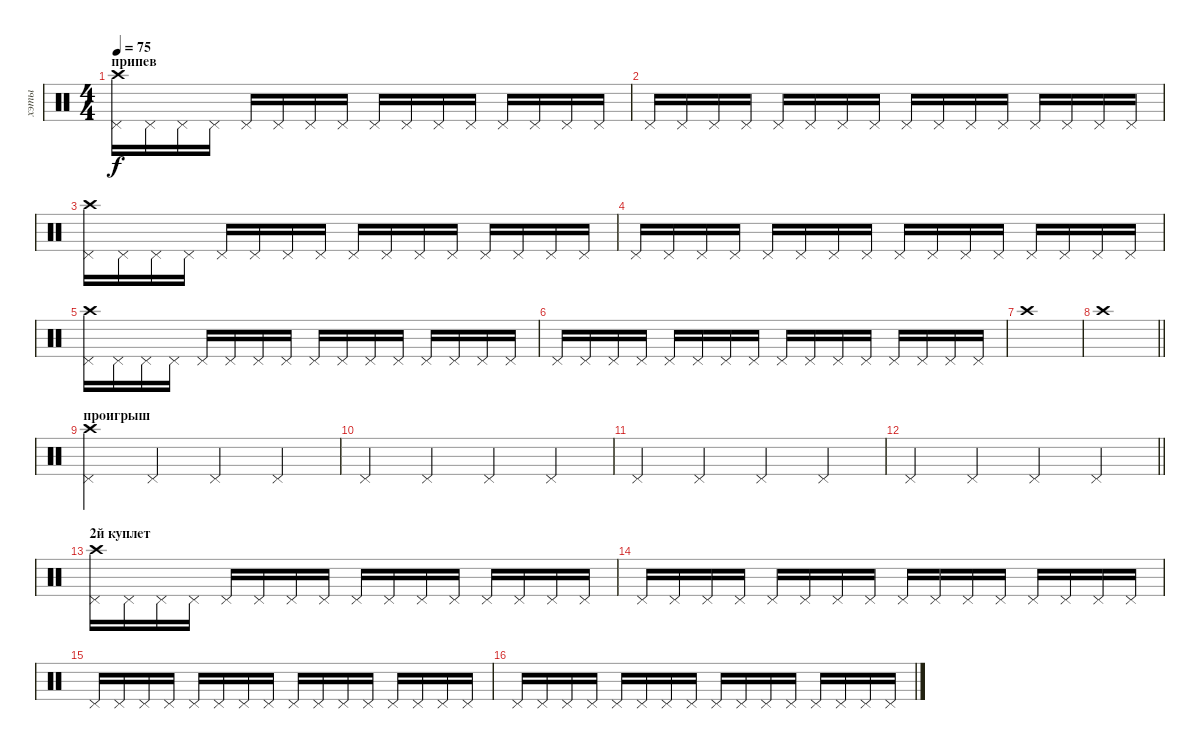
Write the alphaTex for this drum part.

\track ("хэты" "хэты") {instrument percussion}
\staff {score}
\articulation defaults
\ts (4 4)
\section ("" "припев")
\tempo 75
\clef neutral
\ks c
("Crash high (hit)" "Pedal Hi-Hat (hit)").16{dy f} "Pedal Hi-Hat (hit)".16 "Pedal Hi-Hat (hit)".16 "Pedal Hi-Hat (hit)".16 "Pedal Hi-Hat (hit)".16 "Pedal Hi-Hat (hit)".16 "Pedal Hi-Hat (hit)".16 "Pedal Hi-Hat (hit)".16 "Pedal Hi-Hat (hit)".16 "Pedal Hi-Hat (hit)".16 "Pedal Hi-Hat (hit)".16 "Pedal Hi-Hat (hit)".16 "Pedal Hi-Hat (hit)".16 "Pedal Hi-Hat (hit)".16 "Pedal Hi-Hat (hit)".16 "Pedal Hi-Hat (hit)".16 |
"Pedal Hi-Hat (hit)".16 "Pedal Hi-Hat (hit)".16 "Pedal Hi-Hat (hit)".16 "Pedal Hi-Hat (hit)".16 "Pedal Hi-Hat (hit)".16 "Pedal Hi-Hat (hit)".16 "Pedal Hi-Hat (hit)".16 "Pedal Hi-Hat (hit)".16 "Pedal Hi-Hat (hit)".16 "Pedal Hi-Hat (hit)".16 "Pedal Hi-Hat (hit)".16 "Pedal Hi-Hat (hit)".16 "Pedal Hi-Hat (hit)".16 "Pedal Hi-Hat (hit)".16 "Pedal Hi-Hat (hit)".16 "Pedal Hi-Hat (hit)".16 |
("Crash high (hit)" "Pedal Hi-Hat (hit)").16 "Pedal Hi-Hat (hit)".16 "Pedal Hi-Hat (hit)".16 "Pedal Hi-Hat (hit)".16 "Pedal Hi-Hat (hit)".16 "Pedal Hi-Hat (hit)".16 "Pedal Hi-Hat (hit)".16 "Pedal Hi-Hat (hit)".16 "Pedal Hi-Hat (hit)".16 "Pedal Hi-Hat (hit)".16 "Pedal Hi-Hat (hit)".16 "Pedal Hi-Hat (hit)".16 "Pedal Hi-Hat (hit)".16 "Pedal Hi-Hat (hit)".16 "Pedal Hi-Hat (hit)".16 "Pedal Hi-Hat (hit)".16 |
"Pedal Hi-Hat (hit)".16 "Pedal Hi-Hat (hit)".16 "Pedal Hi-Hat (hit)".16 "Pedal Hi-Hat (hit)".16 "Pedal Hi-Hat (hit)".16 "Pedal Hi-Hat (hit)".16 "Pedal Hi-Hat (hit)".16 "Pedal Hi-Hat (hit)".16 "Pedal Hi-Hat (hit)".16 "Pedal Hi-Hat (hit)".16 "Pedal Hi-Hat (hit)".16 "Pedal Hi-Hat (hit)".16 "Pedal Hi-Hat (hit)".16 "Pedal Hi-Hat (hit)".16 "Pedal Hi-Hat (hit)".16 "Pedal Hi-Hat (hit)".16 |
("Crash high (hit)" "Pedal Hi-Hat (hit)").16 "Pedal Hi-Hat (hit)".16 "Pedal Hi-Hat (hit)".16 "Pedal Hi-Hat (hit)".16 "Pedal Hi-Hat (hit)".16 "Pedal Hi-Hat (hit)".16 "Pedal Hi-Hat (hit)".16 "Pedal Hi-Hat (hit)".16 "Pedal Hi-Hat (hit)".16 "Pedal Hi-Hat (hit)".16 "Pedal Hi-Hat (hit)".16 "Pedal Hi-Hat (hit)".16 "Pedal Hi-Hat (hit)".16 "Pedal Hi-Hat (hit)".16 "Pedal Hi-Hat (hit)".16 "Pedal Hi-Hat (hit)".16 |
"Pedal Hi-Hat (hit)".16 "Pedal Hi-Hat (hit)".16 "Pedal Hi-Hat (hit)".16 "Pedal Hi-Hat (hit)".16 "Pedal Hi-Hat (hit)".16 "Pedal Hi-Hat (hit)".16 "Pedal Hi-Hat (hit)".16 "Pedal Hi-Hat (hit)".16 "Pedal Hi-Hat (hit)".16 "Pedal Hi-Hat (hit)".16 "Pedal Hi-Hat (hit)".16 "Pedal Hi-Hat (hit)".16 "Pedal Hi-Hat (hit)".16 "Pedal Hi-Hat (hit)".16 "Pedal Hi-Hat (hit)".16 "Pedal Hi-Hat (hit)".16 |
"Crash high (hit)".1 |
\barLineRight lightlight "Crash high (hit)".1
|
\section ("" "проигрыш")
("Pedal Hi-Hat (hit)" "Crash high (hit)").4 "Pedal Hi-Hat (hit)".4 "Pedal Hi-Hat (hit)".4 "Pedal Hi-Hat (hit)".4 |
"Pedal Hi-Hat (hit)".4 "Pedal Hi-Hat (hit)".4 "Pedal Hi-Hat (hit)".4 "Pedal Hi-Hat (hit)".4 |
"Pedal Hi-Hat (hit)".4 "Pedal Hi-Hat (hit)".4 "Pedal Hi-Hat (hit)".4 "Pedal Hi-Hat (hit)".4 |
\barLineRight lightlight "Pedal Hi-Hat (hit)".4 "Pedal Hi-Hat (hit)".4 "Pedal Hi-Hat (hit)".4 "Pedal Hi-Hat (hit)".4
|
\section ("" "2й куплет")
("Crash high (hit)" "Pedal Hi-Hat (hit)").16 "Pedal Hi-Hat (hit)".16 "Pedal Hi-Hat (hit)".16 "Pedal Hi-Hat (hit)".16 "Pedal Hi-Hat (hit)".16 "Pedal Hi-Hat (hit)".16 "Pedal Hi-Hat (hit)".16 "Pedal Hi-Hat (hit)".16 "Pedal Hi-Hat (hit)".16 "Pedal Hi-Hat (hit)".16 "Pedal Hi-Hat (hit)".16 "Pedal Hi-Hat (hit)".16 "Pedal Hi-Hat (hit)".16 "Pedal Hi-Hat (hit)".16 "Pedal Hi-Hat (hit)".16 "Pedal Hi-Hat (hit)".16 |
"Pedal Hi-Hat (hit)".16 "Pedal Hi-Hat (hit)".16 "Pedal Hi-Hat (hit)".16 "Pedal Hi-Hat (hit)".16 "Pedal Hi-Hat (hit)".16 "Pedal Hi-Hat (hit)".16 "Pedal Hi-Hat (hit)".16 "Pedal Hi-Hat (hit)".16 "Pedal Hi-Hat (hit)".16 "Pedal Hi-Hat (hit)".16 "Pedal Hi-Hat (hit)".16 "Pedal Hi-Hat (hit)".16 "Pedal Hi-Hat (hit)".16 "Pedal Hi-Hat (hit)".16 "Pedal Hi-Hat (hit)".16 "Pedal Hi-Hat (hit)".16 |
"Pedal Hi-Hat (hit)".16 "Pedal Hi-Hat (hit)".16 "Pedal Hi-Hat (hit)".16 "Pedal Hi-Hat (hit)".16 "Pedal Hi-Hat (hit)".16 "Pedal Hi-Hat (hit)".16 "Pedal Hi-Hat (hit)".16 "Pedal Hi-Hat (hit)".16 "Pedal Hi-Hat (hit)".16 "Pedal Hi-Hat (hit)".16 "Pedal Hi-Hat (hit)".16 "Pedal Hi-Hat (hit)".16 "Pedal Hi-Hat (hit)".16 "Pedal Hi-Hat (hit)".16 "Pedal Hi-Hat (hit)".16 "Pedal Hi-Hat (hit)".16 |
"Pedal Hi-Hat (hit)".16 "Pedal Hi-Hat (hit)".16 "Pedal Hi-Hat (hit)".16 "Pedal Hi-Hat (hit)".16 "Pedal Hi-Hat (hit)".16 "Pedal Hi-Hat (hit)".16 "Pedal Hi-Hat (hit)".16 "Pedal Hi-Hat (hit)".16 "Pedal Hi-Hat (hit)".16 "Pedal Hi-Hat (hit)".16 "Pedal Hi-Hat (hit)".16 "Pedal Hi-Hat (hit)".16 "Pedal Hi-Hat (hit)".16 "Pedal Hi-Hat (hit)".16 "Pedal Hi-Hat (hit)".16 "Pedal Hi-Hat (hit)".16
